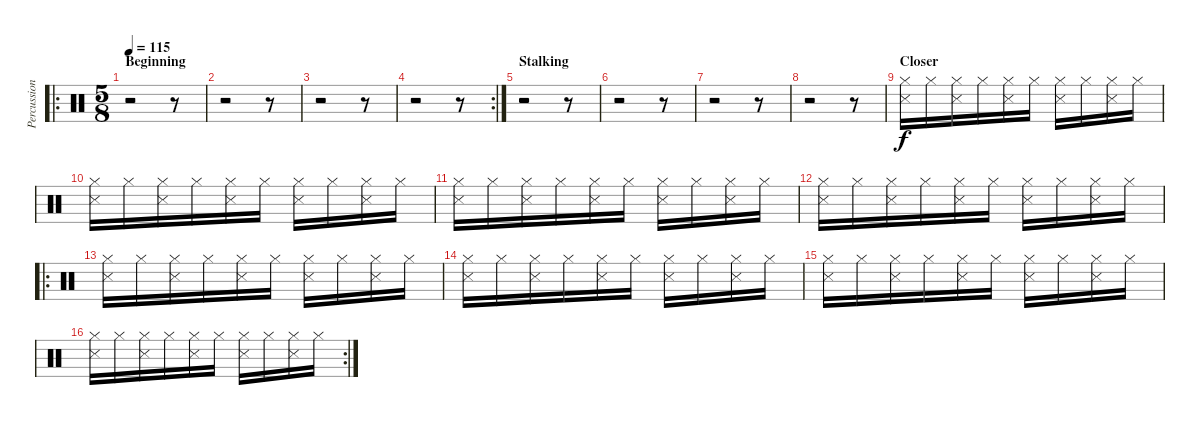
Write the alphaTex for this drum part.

\track ("Percussion" "Percussion") {instrument percussion}
\staff {score}
\articulation defaults
\ro
\ts (5 8)
\section ("" "Beginning")
\tempo 115
\clef neutral
\ks c
r.2{dy f} r.8 |
r.2 r.8 |
r.2 r.8 |
\rc 2
r.2 r.8 |
\section ("" "Stalking")
r.2 r.8 |
r.2 r.8 |
r.2 r.8 |
r.2 r.8 |
\section ("" "Closer")
("Hi-Hat (closed)" "Snare (side stick) 3").16 "Hi-Hat (closed)".16 ("Hi-Hat (closed)" "Snare (side stick) 3").16 "Hi-Hat (closed)".16 ("Hi-Hat (closed)" "Snare (side stick) 3").16 "Hi-Hat (closed)".16 ("Hi-Hat (closed)" "Snare (side stick) 3").16 "Hi-Hat (closed)".16 ("Hi-Hat (closed)" "Snare (side stick) 3").16 "Hi-Hat (closed)".16 |
("Hi-Hat (closed)" "Snare (side stick) 3").16 "Hi-Hat (closed)".16 ("Hi-Hat (closed)" "Snare (side stick) 3").16 "Hi-Hat (closed)".16 ("Hi-Hat (closed)" "Snare (side stick) 3").16 "Hi-Hat (closed)".16 ("Hi-Hat (closed)" "Snare (side stick) 3").16 "Hi-Hat (closed)".16 ("Hi-Hat (closed)" "Snare (side stick) 3").16 "Hi-Hat (closed)".16 |
("Hi-Hat (closed)" "Snare (side stick) 3").16 "Hi-Hat (closed)".16 ("Hi-Hat (closed)" "Snare (side stick) 3").16 "Hi-Hat (closed)".16 ("Hi-Hat (closed)" "Snare (side stick) 3").16 "Hi-Hat (closed)".16 ("Hi-Hat (closed)" "Snare (side stick) 3").16 "Hi-Hat (closed)".16 ("Hi-Hat (closed)" "Snare (side stick) 3").16 "Hi-Hat (closed)".16 |
("Hi-Hat (closed)" "Snare (side stick) 3").16 "Hi-Hat (closed)".16 ("Hi-Hat (closed)" "Snare (side stick) 3").16 "Hi-Hat (closed)".16 ("Hi-Hat (closed)" "Snare (side stick) 3").16 "Hi-Hat (closed)".16 ("Hi-Hat (closed)" "Snare (side stick) 3").16 "Hi-Hat (closed)".16 ("Hi-Hat (closed)" "Snare (side stick) 3").16 "Hi-Hat (closed)".16 |
\ro
("Hi-Hat (closed)" "Snare (side stick) 3").16 "Hi-Hat (closed)".16 ("Hi-Hat (closed)" "Snare (side stick) 3").16 "Hi-Hat (closed)".16 ("Hi-Hat (closed)" "Snare (side stick) 3").16 "Hi-Hat (closed)".16 ("Hi-Hat (closed)" "Snare (side stick) 3").16 "Hi-Hat (closed)".16 ("Hi-Hat (closed)" "Snare (side stick) 3").16 "Hi-Hat (closed)".16 |
("Hi-Hat (closed)" "Snare (side stick) 3").16 "Hi-Hat (closed)".16 ("Hi-Hat (closed)" "Snare (side stick) 3").16 "Hi-Hat (closed)".16 ("Hi-Hat (closed)" "Snare (side stick) 3").16 "Hi-Hat (closed)".16 ("Hi-Hat (closed)" "Snare (side stick) 3").16 "Hi-Hat (closed)".16 ("Hi-Hat (closed)" "Snare (side stick) 3").16 "Hi-Hat (closed)".16 |
("Hi-Hat (closed)" "Snare (side stick) 3").16 "Hi-Hat (closed)".16 ("Hi-Hat (closed)" "Snare (side stick) 3").16 "Hi-Hat (closed)".16 ("Hi-Hat (closed)" "Snare (side stick) 3").16 "Hi-Hat (closed)".16 ("Hi-Hat (closed)" "Snare (side stick) 3").16 "Hi-Hat (closed)".16 ("Hi-Hat (closed)" "Snare (side stick) 3").16 "Hi-Hat (closed)".16 |
\rc 2
("Hi-Hat (closed)" "Snare (side stick) 3").16 "Hi-Hat (closed)".16 ("Hi-Hat (closed)" "Snare (side stick) 3").16 "Hi-Hat (closed)".16 ("Hi-Hat (closed)" "Snare (side stick) 3").16 "Hi-Hat (closed)".16 ("Hi-Hat (closed)" "Snare (side stick) 3").16 "Hi-Hat (closed)".16 ("Hi-Hat (closed)" "Snare (side stick) 3").16 "Hi-Hat (closed)".16
